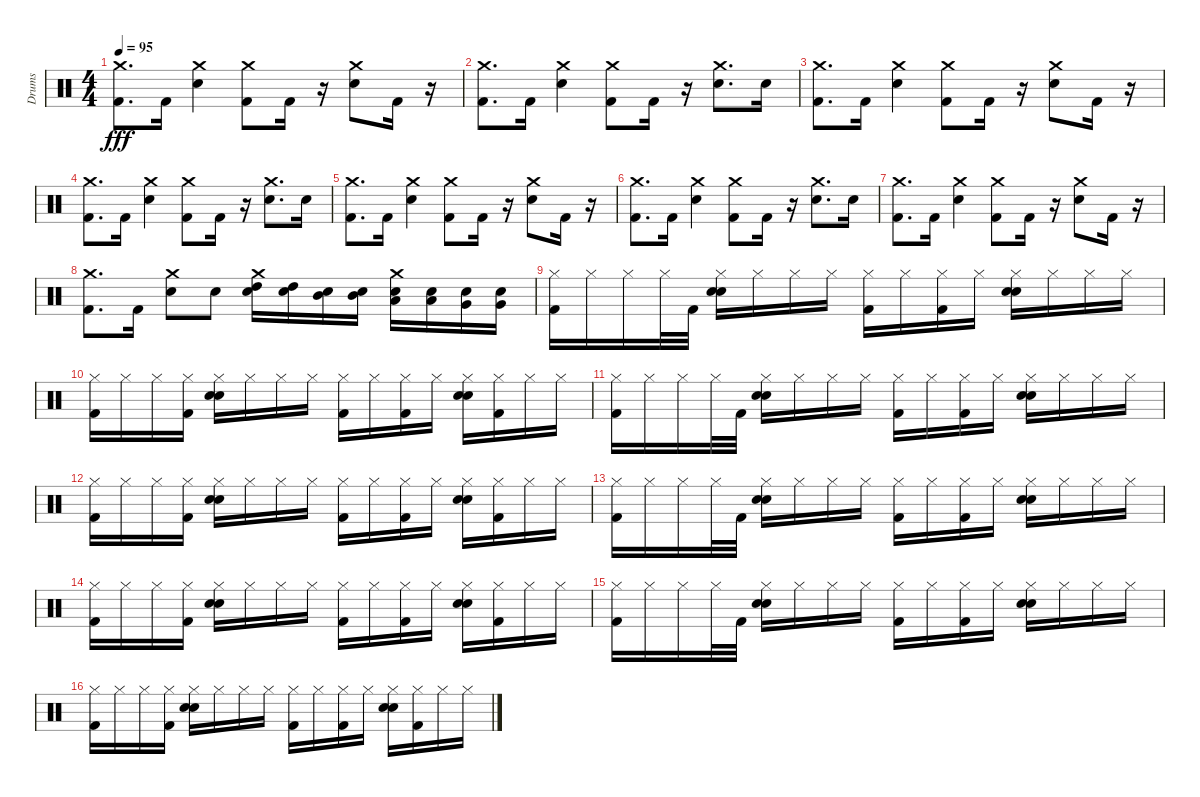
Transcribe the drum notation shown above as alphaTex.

\track ("Drums" "Drums") {instrument percussion}
\staff {score}
\articulation defaults
\ts (4 4)
\tempo 95
\clef neutral
\ks c
("Crash medium (hit)" "Kick (hit) 2").8{d dy fff} "Kick (hit) 2".16 ("Crash medium (hit)" "Electric Snare (hit)").4 ("Crash medium (hit)" "Kick (hit) 2").8 "Kick (hit) 2".16 r.16 ("Crash medium (hit)" "Electric Snare (hit)").8 "Kick (hit) 2".16 r.16 |
("Crash medium (hit)" "Kick (hit) 2").8{d} "Kick (hit) 2".16 ("Crash medium (hit)" "Electric Snare (hit)").4 ("Crash medium (hit)" "Kick (hit) 2").8 "Kick (hit) 2".16 r.16 ("Crash medium (hit)" "Electric Snare (hit)").8{d} "Electric Snare (hit)".16 |
("Crash medium (hit)" "Kick (hit) 2").8{d} "Kick (hit) 2".16 ("Crash medium (hit)" "Electric Snare (hit)").4 ("Crash medium (hit)" "Kick (hit) 2").8 "Kick (hit) 2".16 r.16 ("Crash medium (hit)" "Electric Snare (hit)").8 "Kick (hit) 2".16 r.16 |
("Crash medium (hit)" "Kick (hit) 2").8{d} "Kick (hit) 2".16 ("Crash medium (hit)" "Electric Snare (hit)").4 ("Crash medium (hit)" "Kick (hit) 2").8 "Kick (hit) 2".16 r.16 ("Crash medium (hit)" "Electric Snare (hit)").8{d} "Electric Snare (hit)".16 |
("Crash medium (hit)" "Kick (hit) 2").8{d} "Kick (hit) 2".16 ("Crash medium (hit)" "Electric Snare (hit)").4 ("Crash medium (hit)" "Kick (hit) 2").8 "Kick (hit) 2".16 r.16 ("Crash medium (hit)" "Electric Snare (hit)").8 "Kick (hit) 2".16 r.16 |
("Crash medium (hit)" "Kick (hit) 2").8{d} "Kick (hit) 2".16 ("Crash medium (hit)" "Electric Snare (hit)").4 ("Crash medium (hit)" "Kick (hit) 2").8 "Kick (hit) 2".16 r.16 ("Crash medium (hit)" "Electric Snare (hit)").8{d} "Electric Snare (hit)".16 |
("Crash medium (hit)" "Kick (hit) 2").8{d} "Kick (hit) 2".16 ("Crash medium (hit)" "Electric Snare (hit)").4 ("Crash medium (hit)" "Kick (hit) 2").8 "Kick (hit) 2".16 r.16 ("Crash medium (hit)" "Electric Snare (hit)").8 "Kick (hit) 2".16 r.16 |
("Crash medium (hit)" "Kick (hit) 2").8{d} "Kick (hit) 2".16 ("Crash medium (hit)" "Electric Snare (hit)").8 "Electric Snare (hit)".8 ("High Tom (hit)" "Electric Snare (hit)" "Crash medium (hit)").16 ("High Tom (hit)" "Electric Snare (hit)").16 ("Mid Tom (hit)" "Electric Snare (hit)").16 ("Mid Tom (hit)" "Electric Snare (hit)").16 ("Low Tom (hit)" "Electric Snare (hit)" "Crash medium (hit)").16 ("Low Tom (hit)" "Electric Snare (hit)").16 ("Very Low Tom (hit)" "Electric Snare (hit)").16 ("Very Low Tom (hit)" "Electric Snare (hit)").16 |
("Hi-Hat (closed)" "Kick (hit) 2").16 "Hi-Hat (closed)".16 "Hi-Hat (closed)".16 "Hi-Hat (closed)".32 "Kick (hit) 2".32 ("Hi-Hat (closed)" "Snare (hit) 2" "Electric Snare (hit)").16 "Hi-Hat (closed)".16 "Hi-Hat (closed)".16 "Hi-Hat (closed)".16 ("Hi-Hat (closed)" "Kick (hit) 2").16 "Hi-Hat (closed)".16 ("Hi-Hat (closed)" "Kick (hit) 2").16 "Hi-Hat (closed)".16 ("Hi-Hat (closed)" "Snare (hit) 2" "Electric Snare (hit)").16 "Hi-Hat (closed)".16 "Hi-Hat (closed)".16 "Hi-Hat (closed)".16 |
("Kick (hit) 2" "Hi-Hat (closed)").16 "Hi-Hat (closed)".16 "Hi-Hat (closed)".16 ("Kick (hit) 2" "Hi-Hat (closed)").16 ("Snare (hit) 2" "Electric Snare (hit)" "Hi-Hat (closed)").16 "Hi-Hat (closed)".16 "Hi-Hat (closed)".16 "Hi-Hat (closed)".16 ("Kick (hit) 2" "Hi-Hat (closed)").16 "Hi-Hat (closed)".16 ("Kick (hit) 2" "Hi-Hat (closed)").16 "Hi-Hat (closed)".16 ("Snare (hit) 2" "Electric Snare (hit)" "Hi-Hat (closed)").16 ("Kick (hit) 2" "Hi-Hat (closed)").16 "Hi-Hat (closed)".16 "Hi-Hat (closed)".16 |
("Hi-Hat (closed)" "Kick (hit) 2").16 "Hi-Hat (closed)".16 "Hi-Hat (closed)".16 "Hi-Hat (closed)".32 "Kick (hit) 2".32 ("Hi-Hat (closed)" "Snare (hit) 2" "Electric Snare (hit)").16 "Hi-Hat (closed)".16 "Hi-Hat (closed)".16 "Hi-Hat (closed)".16 ("Hi-Hat (closed)" "Kick (hit) 2").16 "Hi-Hat (closed)".16 ("Hi-Hat (closed)" "Kick (hit) 2").16 "Hi-Hat (closed)".16 ("Hi-Hat (closed)" "Snare (hit) 2" "Electric Snare (hit)").16 "Hi-Hat (closed)".16 "Hi-Hat (closed)".16 "Hi-Hat (closed)".16 |
("Kick (hit) 2" "Hi-Hat (closed)").16 "Hi-Hat (closed)".16 "Hi-Hat (closed)".16 ("Kick (hit) 2" "Hi-Hat (closed)").16 ("Snare (hit) 2" "Electric Snare (hit)" "Hi-Hat (closed)").16 "Hi-Hat (closed)".16 "Hi-Hat (closed)".16 "Hi-Hat (closed)".16 ("Kick (hit) 2" "Hi-Hat (closed)").16 "Hi-Hat (closed)".16 ("Kick (hit) 2" "Hi-Hat (closed)").16 "Hi-Hat (closed)".16 ("Snare (hit) 2" "Electric Snare (hit)" "Hi-Hat (closed)").16 ("Kick (hit) 2" "Hi-Hat (closed)").16 "Hi-Hat (closed)".16 "Hi-Hat (closed)".16 |
("Hi-Hat (closed)" "Kick (hit) 2").16 "Hi-Hat (closed)".16 "Hi-Hat (closed)".16 "Hi-Hat (closed)".32 "Kick (hit) 2".32 ("Hi-Hat (closed)" "Snare (hit) 2" "Electric Snare (hit)").16 "Hi-Hat (closed)".16 "Hi-Hat (closed)".16 "Hi-Hat (closed)".16 ("Hi-Hat (closed)" "Kick (hit) 2").16 "Hi-Hat (closed)".16 ("Hi-Hat (closed)" "Kick (hit) 2").16 "Hi-Hat (closed)".16 ("Hi-Hat (closed)" "Snare (hit) 2" "Electric Snare (hit)").16 "Hi-Hat (closed)".16 "Hi-Hat (closed)".16 "Hi-Hat (closed)".16 |
("Kick (hit) 2" "Hi-Hat (closed)").16 "Hi-Hat (closed)".16 "Hi-Hat (closed)".16 ("Kick (hit) 2" "Hi-Hat (closed)").16 ("Snare (hit) 2" "Electric Snare (hit)" "Hi-Hat (closed)").16 "Hi-Hat (closed)".16 "Hi-Hat (closed)".16 "Hi-Hat (closed)".16 ("Kick (hit) 2" "Hi-Hat (closed)").16 "Hi-Hat (closed)".16 ("Kick (hit) 2" "Hi-Hat (closed)").16 "Hi-Hat (closed)".16 ("Snare (hit) 2" "Electric Snare (hit)" "Hi-Hat (closed)").16 ("Kick (hit) 2" "Hi-Hat (closed)").16 "Hi-Hat (closed)".16 "Hi-Hat (closed)".16 |
("Hi-Hat (closed)" "Kick (hit) 2").16 "Hi-Hat (closed)".16 "Hi-Hat (closed)".16 "Hi-Hat (closed)".32 "Kick (hit) 2".32 ("Hi-Hat (closed)" "Snare (hit) 2" "Electric Snare (hit)").16 "Hi-Hat (closed)".16 "Hi-Hat (closed)".16 "Hi-Hat (closed)".16 ("Hi-Hat (closed)" "Kick (hit) 2").16 "Hi-Hat (closed)".16 ("Hi-Hat (closed)" "Kick (hit) 2").16 "Hi-Hat (closed)".16 ("Hi-Hat (closed)" "Snare (hit) 2" "Electric Snare (hit)").16 "Hi-Hat (closed)".16 "Hi-Hat (closed)".16 "Hi-Hat (closed)".16 |
("Kick (hit) 2" "Hi-Hat (closed)").16 "Hi-Hat (closed)".16 "Hi-Hat (closed)".16 ("Kick (hit) 2" "Hi-Hat (closed)").16 ("Snare (hit) 2" "Electric Snare (hit)" "Hi-Hat (closed)").16 "Hi-Hat (closed)".16 "Hi-Hat (closed)".16 "Hi-Hat (closed)".16 ("Kick (hit) 2" "Hi-Hat (closed)").16 "Hi-Hat (closed)".16 ("Kick (hit) 2" "Hi-Hat (closed)").16 "Hi-Hat (closed)".16 ("Snare (hit) 2" "Electric Snare (hit)" "Hi-Hat (closed)").16 ("Kick (hit) 2" "Hi-Hat (closed)").16 "Hi-Hat (closed)".16 "Hi-Hat (closed)".16
